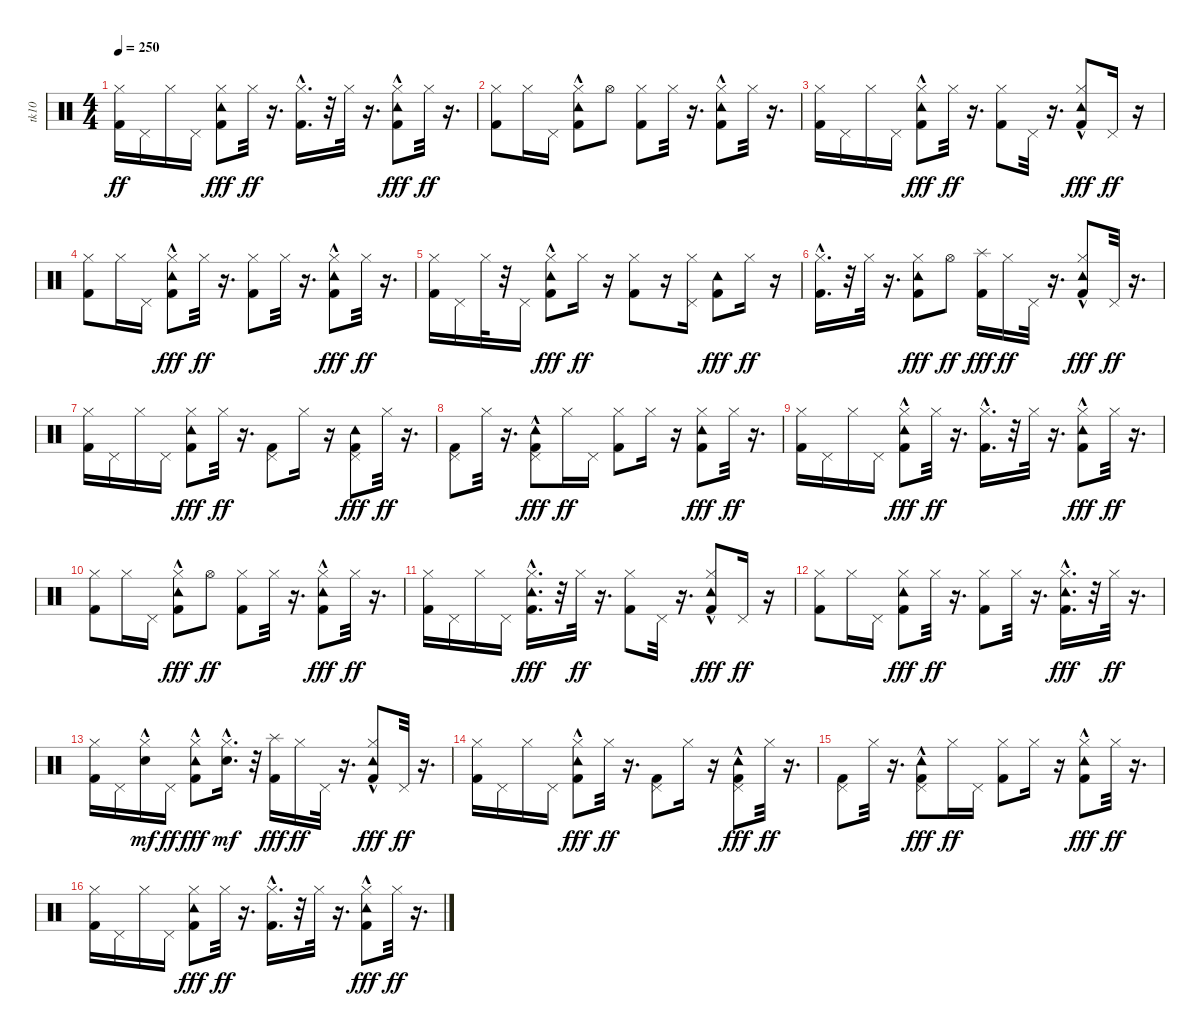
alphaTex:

\track ("tk10" "tk10") {instrument percussion}
\staff {score}
\articulation defaults
\ts (4 4)
\tempo 250
\clef neutral
\ks c
("Kick (hit) 2" "Hi-Hat (closed)").16{dy ff} "Pedal Hi-Hat (hit)".16 "Hi-Hat (closed)".16 "Pedal Hi-Hat (hit)".16 ("Kick (hit) 2" "Hi-Hat (closed)" "Tambourine (hit)").8{dy fff} "Hi-Hat (closed)".32{dy ff} r.16{d} ("Kick (hit) 2"{hac} "Hi-Hat (closed)").16{d} r.32 "Hi-Hat (closed)".32 r.16{d} ("Kick (hit) 2" "Hi-Hat (closed)" "Tambourine (hit)"{hac}).8{dy fff} "Hi-Hat (closed)".32{dy ff} r.16{d} |
("Kick (hit) 2" "Hi-Hat (closed)").8 "Hi-Hat (closed)".16 "Pedal Hi-Hat (hit)".16 ("Tambourine (hit)"{hac} "Kick (hit) 2" "Hi-Hat (closed)").8 "Hi-Hat (open)".8 ("Kick (hit) 2" "Hi-Hat (closed)").8 "Hi-Hat (closed)".32 r.16{d} ("Tambourine (hit)"{hac} "Kick (hit) 2" "Hi-Hat (closed)").8 "Hi-Hat (closed)".32 r.16{d} |
("Kick (hit) 2" "Hi-Hat (closed)").16 "Pedal Hi-Hat (hit)".16 "Hi-Hat (closed)".16 "Pedal Hi-Hat (hit)".16 ("Kick (hit) 2"{hac} "Hi-Hat (closed)" "Tambourine (hit)"{hac}).8{dy fff} "Hi-Hat (closed)".32{dy ff} r.16{d} ("Kick (hit) 2" "Hi-Hat (closed)").8 "Pedal Hi-Hat (hit)".32 r.16{d} ("Kick (hit) 2" "Hi-Hat (closed)" "Tambourine (hit)"{hac}).8{dy fff} "Pedal Hi-Hat (hit)".16{dy ff} r.16 |
("Kick (hit) 2" "Hi-Hat (closed)").8 "Hi-Hat (closed)".16 "Pedal Hi-Hat (hit)".16 ("Kick (hit) 2" "Hi-Hat (closed)" "Tambourine (hit)"{hac}).8{dy fff} "Hi-Hat (closed)".32{dy ff} r.16{d} ("Kick (hit) 2" "Hi-Hat (closed)").8 "Hi-Hat (closed)".32 r.16{d} ("Kick (hit) 2"{hac} "Hi-Hat (closed)" "Tambourine (hit)"{hac}).8{dy fff} "Hi-Hat (closed)".32{dy ff} r.16{d} |
("Kick (hit) 2" "Hi-Hat (closed)").16 "Pedal Hi-Hat (hit)".16 "Hi-Hat (closed)".32 r.32 "Pedal Hi-Hat (hit)".16 ("Kick (hit) 2" "Hi-Hat (closed)" "Tambourine (hit)"{hac}).8{dy fff} "Hi-Hat (closed)".16{dy ff} r.16 ("Kick (hit) 2" "Hi-Hat (closed)").8 r.16 ("Hi-Hat (closed)" "Pedal Hi-Hat (hit)").16 ("Kick (hit) 2" "Tambourine (hit)").8{dy fff} "Hi-Hat (closed)".16{dy ff} r.16 |
("Kick (hit) 2"{hac} "Hi-Hat (closed)").16{d} r.32 "Hi-Hat (closed)".32 r.16{d} ("Kick (hit) 2" "Hi-Hat (closed)" "Tambourine (hit)").8{dy fff} "Hi-Hat (open)".8{dy ff} ("Kick (hit) 2" "Splash (hit)").16{dy fff} "Hi-Hat (closed)".16{dy ff} "Pedal Hi-Hat (hit)".32 r.16{d} ("Kick (hit) 2" "Hi-Hat (closed)" "Tambourine (hit)"{hac}).8{dy fff} "Pedal Hi-Hat (hit)".32{dy ff} r.16{d} |
("Kick (hit) 2" "Hi-Hat (closed)").16 "Pedal Hi-Hat (hit)".16 "Hi-Hat (closed)".16 "Pedal Hi-Hat (hit)".16 ("Kick (hit) 2" "Hi-Hat (closed)" "Tambourine (hit)").8{dy fff} "Hi-Hat (closed)".32{dy ff} r.16{d} ("Kick (hit) 2" "Pedal Hi-Hat (hit)").8 "Hi-Hat (closed)".16 r.16 ("Kick (hit) 2" "Pedal Hi-Hat (hit)" "Tambourine (hit)").8{dy fff} "Hi-Hat (closed)".32{dy ff} r.16{d} |
("Kick (hit) 2" "Pedal Hi-Hat (hit)").8 "Hi-Hat (closed)".32 r.16{d} ("Kick (hit) 2" "Pedal Hi-Hat (hit)" "Tambourine (hit)"{hac}).8{dy fff} "Hi-Hat (closed)".16{dy ff} "Pedal Hi-Hat (hit)".16 ("Kick (hit) 2" "Hi-Hat (closed)").8 "Hi-Hat (closed)".16 r.16 ("Kick (hit) 2" "Hi-Hat (closed)" "Tambourine (hit)").8{dy fff} "Hi-Hat (closed)".32{dy ff} r.16{d} |
("Kick (hit) 2" "Hi-Hat (closed)").16 "Pedal Hi-Hat (hit)".16 "Hi-Hat (closed)".16 "Pedal Hi-Hat (hit)".16 ("Kick (hit) 2" "Hi-Hat (closed)" "Tambourine (hit)"{hac}).8{dy fff} "Hi-Hat (closed)".32{dy ff} r.16{d} ("Kick (hit) 2"{hac} "Hi-Hat (closed)").16{d} r.32 "Hi-Hat (closed)".32 r.16{d} ("Kick (hit) 2" "Hi-Hat (closed)" "Tambourine (hit)"{hac}).8{dy fff} "Hi-Hat (closed)".32{dy ff} r.16{d} |
("Kick (hit) 2" "Hi-Hat (closed)").8 "Hi-Hat (closed)".16 "Pedal Hi-Hat (hit)".16 ("Kick (hit) 2" "Hi-Hat (closed)" "Tambourine (hit)"{hac}).8{dy fff} "Hi-Hat (open)".8{dy ff} ("Kick (hit) 2" "Hi-Hat (closed)").8 "Hi-Hat (closed)".32 r.16{d} ("Kick (hit) 2" "Hi-Hat (closed)" "Tambourine (hit)"{hac}).8{dy fff} "Hi-Hat (closed)".32{dy ff} r.16{d} |
("Kick (hit) 2" "Hi-Hat (closed)").16 "Pedal Hi-Hat (hit)".16 "Hi-Hat (closed)".16 "Pedal Hi-Hat (hit)".16 ("Kick (hit) 2"{hac} "Hi-Hat (closed)" "Tambourine (hit)"{hac}).16{d dy fff} r.32 "Hi-Hat (closed)".32{dy ff} r.16{d} ("Kick (hit) 2" "Hi-Hat (closed)").8 "Pedal Hi-Hat (hit)".32 r.16{d} ("Kick (hit) 2" "Hi-Hat (closed)" "Tambourine (hit)"{hac}).8{dy fff} "Pedal Hi-Hat (hit)".16{dy ff} r.16 |
("Kick (hit) 2" "Hi-Hat (closed)").8 "Hi-Hat (closed)".16 "Pedal Hi-Hat (hit)".16 ("Kick (hit) 2" "Hi-Hat (closed)" "Tambourine (hit)").8{dy fff} "Hi-Hat (closed)".32{dy ff} r.16{d} ("Kick (hit) 2" "Hi-Hat (closed)").8 "Hi-Hat (closed)".32 r.16{d} ("Kick (hit) 2"{hac} "Hi-Hat (closed)" "Tambourine (hit)"{hac}).16{d dy fff} r.32 "Hi-Hat (closed)".32{dy ff} r.16{d} |
("Kick (hit) 2" "Hi-Hat (closed)").16 "Pedal Hi-Hat (hit)".16 ("Hi-Hat (closed)" "Electric Snare (hit)"{hac}).16{dy mf} "Pedal Hi-Hat (hit)".16{dy ff} ("Kick (hit) 2" "Hi-Hat (closed)" "Tambourine (hit)"{hac}).8{dy fff} ("Hi-Hat (closed)" "Electric Snare (hit)"{hac}).16{d dy mf} r.32 ("Kick (hit) 2" "Splash (hit)").16{dy fff} "Hi-Hat (closed)".16{dy ff} "Pedal Hi-Hat (hit)".32 r.16{d} ("Kick (hit) 2" "Hi-Hat (closed)" "Tambourine (hit)"{hac}).8{dy fff} "Pedal Hi-Hat (hit)".32{dy ff} r.16{d} |
("Kick (hit) 2" "Hi-Hat (closed)").16 "Pedal Hi-Hat (hit)".16 "Hi-Hat (closed)".16 "Pedal Hi-Hat (hit)".16 ("Kick (hit) 2" "Hi-Hat (closed)" "Tambourine (hit)"{hac}).8{dy fff} "Hi-Hat (closed)".32{dy ff} r.16{d} ("Kick (hit) 2" "Pedal Hi-Hat (hit)").8 "Hi-Hat (closed)".16 r.16 ("Kick (hit) 2" "Pedal Hi-Hat (hit)" "Tambourine (hit)"{hac}).8{dy fff} "Hi-Hat (closed)".32{dy ff} r.16{d} |
("Kick (hit) 2" "Pedal Hi-Hat (hit)").8 "Hi-Hat (closed)".32 r.16{d} ("Kick (hit) 2" "Pedal Hi-Hat (hit)" "Tambourine (hit)"{hac}).8{dy fff} "Hi-Hat (closed)".16{dy ff} "Pedal Hi-Hat (hit)".16 ("Kick (hit) 2" "Hi-Hat (closed)").8 "Hi-Hat (closed)".16 r.16 ("Kick (hit) 2" "Hi-Hat (closed)" "Tambourine (hit)"{hac}).8{dy fff} "Hi-Hat (closed)".32{dy ff} r.16{d} |
("Kick (hit) 2" "Hi-Hat (closed)").16 "Pedal Hi-Hat (hit)".16 "Hi-Hat (closed)".16 "Pedal Hi-Hat (hit)".16 ("Kick (hit) 2" "Hi-Hat (closed)" "Tambourine (hit)").8{dy fff} "Hi-Hat (closed)".32{dy ff} r.16{d} ("Kick (hit) 2"{hac} "Hi-Hat (closed)").16{d} r.32 "Hi-Hat (closed)".32 r.16{d} ("Kick (hit) 2" "Hi-Hat (closed)" "Tambourine (hit)"{hac}).8{dy fff} "Hi-Hat (closed)".32{dy ff} r.16{d}
